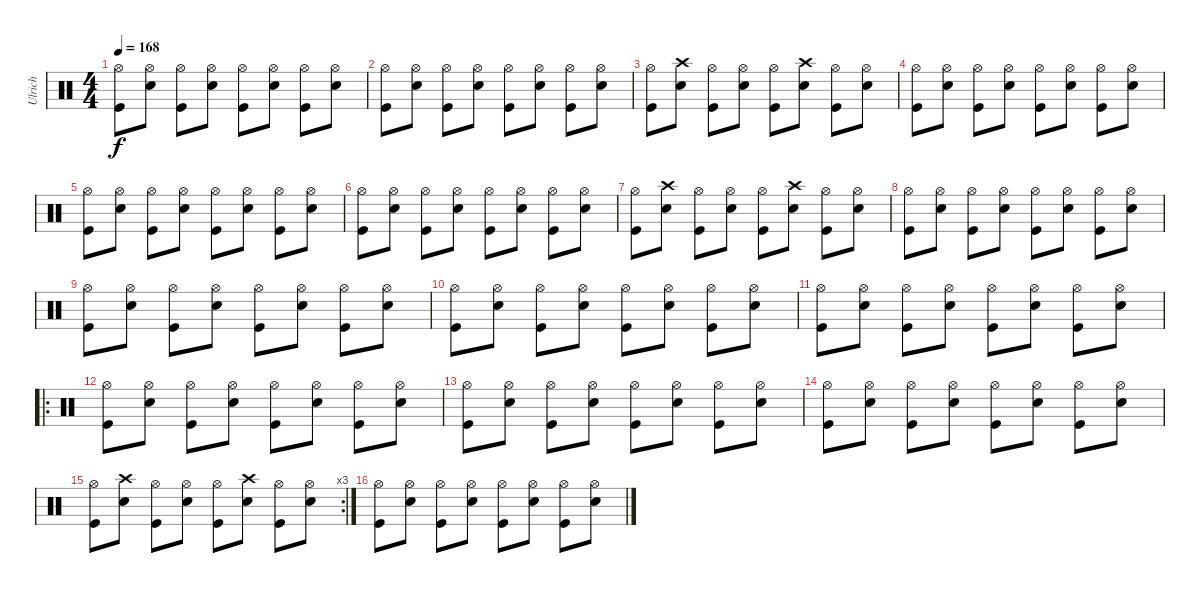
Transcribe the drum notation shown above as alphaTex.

\track ("Ulrich" "Ulrich") {instrument percussion}
\staff {score}
\articulation defaults
\ts (4 4)
\tempo 168
\clef neutral
\ks c
("Hi-Hat (open)" "Kick (hit)").8{dy f} ("Hi-Hat (open)" "Snare (hit) 2").8 ("Hi-Hat (open)" "Kick (hit)").8 ("Hi-Hat (open)" "Snare (hit) 2").8 ("Hi-Hat (open)" "Kick (hit)").8 ("Hi-Hat (open)" "Snare (hit) 2").8 ("Hi-Hat (open)" "Kick (hit)").8 ("Hi-Hat (open)" "Snare (hit) 2").8 |
("Hi-Hat (open)" "Kick (hit)").8 ("Hi-Hat (open)" "Snare (hit) 2").8 ("Hi-Hat (open)" "Kick (hit)").8 ("Hi-Hat (open)" "Snare (hit) 2").8 ("Hi-Hat (open)" "Kick (hit)").8 ("Hi-Hat (open)" "Snare (hit) 2").8 ("Hi-Hat (open)" "Kick (hit)").8 ("Hi-Hat (open)" "Snare (hit) 2").8 |
("Hi-Hat (open)" "Kick (hit)").8 ("Crash high (hit)" "Snare (hit) 2").8 ("Hi-Hat (open)" "Kick (hit)").8 ("Hi-Hat (open)" "Snare (hit) 2").8 ("Hi-Hat (open)" "Kick (hit)").8 ("Crash high (hit)" "Snare (hit) 2").8 ("Hi-Hat (open)" "Kick (hit)").8 ("Hi-Hat (open)" "Snare (hit) 2").8 |
("Hi-Hat (open)" "Kick (hit)").8 ("Hi-Hat (open)" "Snare (hit) 2").8 ("Hi-Hat (open)" "Kick (hit)").8 ("Hi-Hat (open)" "Snare (hit) 2").8 ("Hi-Hat (open)" "Kick (hit)").8 ("Hi-Hat (open)" "Snare (hit) 2").8 ("Hi-Hat (open)" "Kick (hit)").8 ("Hi-Hat (open)" "Snare (hit) 2").8 |
("Hi-Hat (open)" "Kick (hit)").8 ("Hi-Hat (open)" "Snare (hit) 2").8 ("Hi-Hat (open)" "Kick (hit)").8 ("Hi-Hat (open)" "Snare (hit) 2").8 ("Hi-Hat (open)" "Kick (hit)").8 ("Hi-Hat (open)" "Snare (hit) 2").8 ("Hi-Hat (open)" "Kick (hit)").8 ("Hi-Hat (open)" "Snare (hit) 2").8 |
("Hi-Hat (open)" "Kick (hit)").8 ("Hi-Hat (open)" "Snare (hit) 2").8 ("Hi-Hat (open)" "Kick (hit)").8 ("Hi-Hat (open)" "Snare (hit) 2").8 ("Hi-Hat (open)" "Kick (hit)").8 ("Hi-Hat (open)" "Snare (hit) 2").8 ("Hi-Hat (open)" "Kick (hit)").8 ("Hi-Hat (open)" "Snare (hit) 2").8 |
("Hi-Hat (open)" "Kick (hit)").8 ("Crash high (hit)" "Snare (hit) 2").8 ("Hi-Hat (open)" "Kick (hit)").8 ("Hi-Hat (open)" "Snare (hit) 2").8 ("Hi-Hat (open)" "Kick (hit)").8 ("Crash high (hit)" "Snare (hit) 2").8 ("Hi-Hat (open)" "Kick (hit)").8 ("Hi-Hat (open)" "Snare (hit) 2").8 |
("Hi-Hat (open)" "Kick (hit)").8 ("Hi-Hat (open)" "Snare (hit) 2").8 ("Hi-Hat (open)" "Kick (hit)").8 ("Hi-Hat (open)" "Snare (hit) 2").8 ("Hi-Hat (open)" "Kick (hit)").8 ("Hi-Hat (open)" "Snare (hit) 2").8 ("Hi-Hat (open)" "Kick (hit)").8 ("Hi-Hat (open)" "Snare (hit) 2").8 |
("Hi-Hat (open)" "Kick (hit)").8 ("Hi-Hat (open)" "Snare (hit) 2").8 ("Hi-Hat (open)" "Kick (hit)").8 ("Hi-Hat (open)" "Snare (hit) 2").8 ("Hi-Hat (open)" "Kick (hit)").8 ("Hi-Hat (open)" "Snare (hit) 2").8 ("Hi-Hat (open)" "Kick (hit)").8 ("Hi-Hat (open)" "Snare (hit) 2").8 |
("Hi-Hat (open)" "Kick (hit)").8 ("Hi-Hat (open)" "Snare (hit) 2").8 ("Hi-Hat (open)" "Kick (hit)").8 ("Hi-Hat (open)" "Snare (hit) 2").8 ("Hi-Hat (open)" "Kick (hit)").8 ("Hi-Hat (open)" "Snare (hit) 2").8 ("Hi-Hat (open)" "Kick (hit)").8 ("Hi-Hat (open)" "Snare (hit) 2").8 |
("Hi-Hat (open)" "Kick (hit)").8 ("Hi-Hat (open)" "Snare (hit) 2").8 ("Hi-Hat (open)" "Kick (hit)").8 ("Hi-Hat (open)" "Snare (hit) 2").8 ("Hi-Hat (open)" "Kick (hit)").8 ("Hi-Hat (open)" "Snare (hit) 2").8 ("Hi-Hat (open)" "Kick (hit)").8 ("Hi-Hat (open)" "Snare (hit) 2").8 |
\ro
("Hi-Hat (open)" "Kick (hit)").8 ("Hi-Hat (open)" "Snare (hit) 2").8 ("Hi-Hat (open)" "Kick (hit)").8 ("Hi-Hat (open)" "Snare (hit) 2").8 ("Hi-Hat (open)" "Kick (hit)").8 ("Hi-Hat (open)" "Snare (hit) 2").8 ("Hi-Hat (open)" "Kick (hit)").8 ("Hi-Hat (open)" "Snare (hit) 2").8 |
("Hi-Hat (open)" "Kick (hit)").8 ("Hi-Hat (open)" "Snare (hit) 2").8 ("Hi-Hat (open)" "Kick (hit)").8 ("Hi-Hat (open)" "Snare (hit) 2").8 ("Hi-Hat (open)" "Kick (hit)").8 ("Hi-Hat (open)" "Snare (hit) 2").8 ("Hi-Hat (open)" "Kick (hit)").8 ("Hi-Hat (open)" "Snare (hit) 2").8 |
("Hi-Hat (open)" "Kick (hit)").8 ("Hi-Hat (open)" "Snare (hit) 2").8 ("Hi-Hat (open)" "Kick (hit)").8 ("Hi-Hat (open)" "Snare (hit) 2").8 ("Hi-Hat (open)" "Kick (hit)").8 ("Hi-Hat (open)" "Snare (hit) 2").8 ("Hi-Hat (open)" "Kick (hit)").8 ("Hi-Hat (open)" "Snare (hit) 2").8 |
\rc 3
("Hi-Hat (open)" "Kick (hit)").8 ("Crash high (hit)" "Snare (hit) 2").8 ("Hi-Hat (open)" "Kick (hit)").8 ("Hi-Hat (open)" "Snare (hit) 2").8 ("Hi-Hat (open)" "Kick (hit)").8 ("Crash high (hit)" "Snare (hit) 2").8 ("Hi-Hat (open)" "Kick (hit)").8 ("Hi-Hat (open)" "Snare (hit) 2").8 |
("Hi-Hat (open)" "Kick (hit)").8 ("Hi-Hat (open)" "Snare (hit) 2").8 ("Hi-Hat (open)" "Kick (hit)").8 ("Hi-Hat (open)" "Snare (hit) 2").8 ("Hi-Hat (open)" "Kick (hit)").8 ("Hi-Hat (open)" "Snare (hit) 2").8 ("Hi-Hat (open)" "Kick (hit)").8 ("Hi-Hat (open)" "Snare (hit) 2").8
